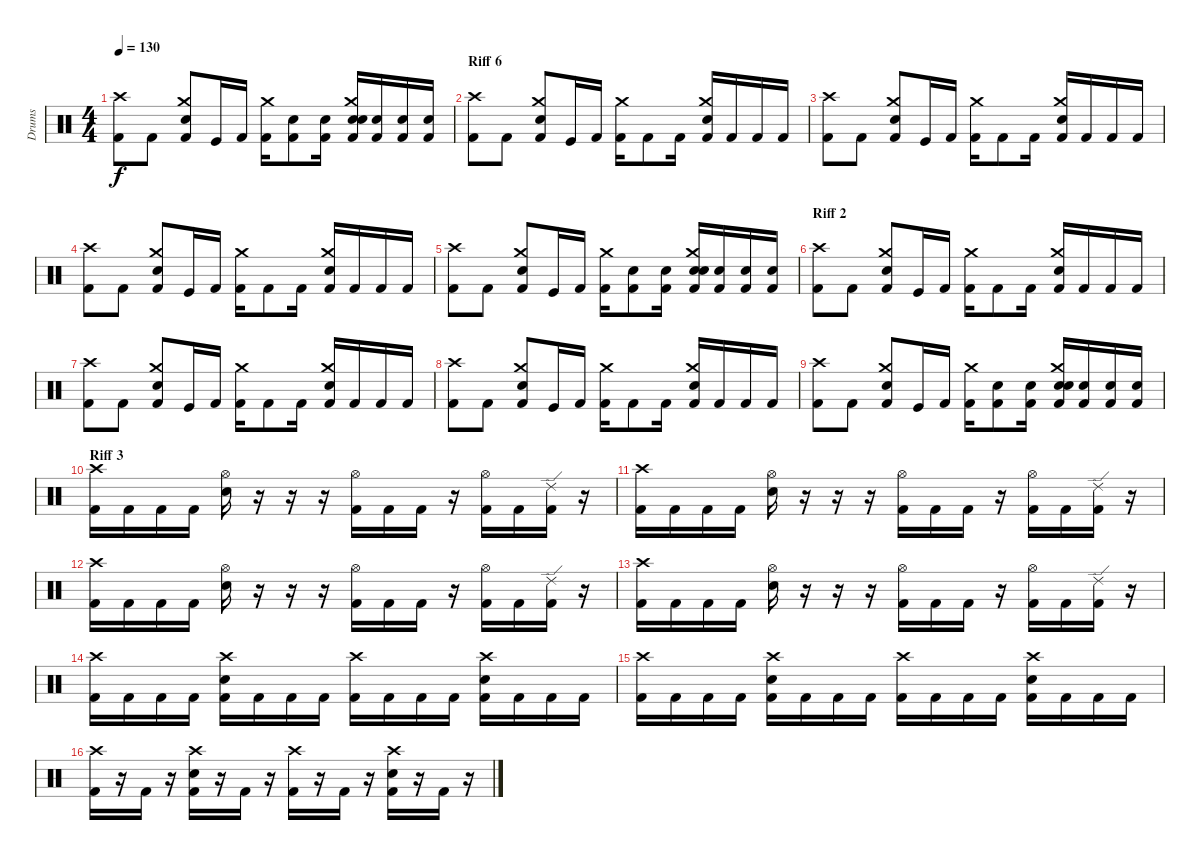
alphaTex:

\track ("Drums" "Drums") {instrument percussion}
\staff {score}
\articulation defaults
\ts (4 4)
\tempo 130
\clef neutral
\ks c
("Crash high (hit)" "Kick (hit) 2").8{dy f} "Kick (hit) 2".8 ("Crash medium (hit)" "Electric Snare (hit)" "Kick (hit) 2").8 "Kick (hit)".16 "Kick (hit) 2".16 ("Crash medium (hit)" "Kick (hit) 2").16 ("Electric Snare (hit)" "Kick (hit) 2").8 ("Electric Snare (hit)" "Kick (hit) 2").16 ("Crash medium (hit)" "Electric Snare (hit)" "Electric Snare (hit)" "Kick (hit) 2").16 ("Electric Snare (hit)" "Kick (hit) 2").16 ("Electric Snare (hit)" "Kick (hit) 2").16 ("Electric Snare (hit)" "Kick (hit) 2").16 |
\section ("" "Riff 6")
("Crash high (hit)" "Kick (hit) 2").8 "Kick (hit) 2".8 ("Crash medium (hit)" "Electric Snare (hit)" "Kick (hit) 2").8 "Kick (hit)".16 "Kick (hit) 2".16 ("Crash medium (hit)" "Kick (hit) 2").16 "Kick (hit) 2".8 "Kick (hit) 2".16 ("Crash medium (hit)" "Electric Snare (hit)" "Kick (hit) 2").16 "Kick (hit) 2".16 "Kick (hit) 2".16 "Kick (hit) 2".16 |
("Crash high (hit)" "Kick (hit) 2").8 "Kick (hit) 2".8 ("Crash medium (hit)" "Electric Snare (hit)" "Kick (hit) 2").8 "Kick (hit)".16 "Kick (hit) 2".16 ("Crash medium (hit)" "Kick (hit) 2").16 "Kick (hit) 2".8 "Kick (hit) 2".16 ("Crash medium (hit)" "Electric Snare (hit)" "Kick (hit) 2").16 "Kick (hit) 2".16 "Kick (hit) 2".16 "Kick (hit) 2".16 |
("Crash high (hit)" "Kick (hit) 2").8 "Kick (hit) 2".8 ("Crash medium (hit)" "Electric Snare (hit)" "Kick (hit) 2").8 "Kick (hit)".16 "Kick (hit) 2".16 ("Crash medium (hit)" "Kick (hit) 2").16 "Kick (hit) 2".8 "Kick (hit) 2".16 ("Crash medium (hit)" "Electric Snare (hit)" "Kick (hit) 2").16 "Kick (hit) 2".16 "Kick (hit) 2".16 "Kick (hit) 2".16 |
("Crash high (hit)" "Kick (hit) 2").8 "Kick (hit) 2".8 ("Crash medium (hit)" "Electric Snare (hit)" "Kick (hit) 2").8 "Kick (hit)".16 "Kick (hit) 2".16 ("Crash medium (hit)" "Kick (hit) 2").16 ("Electric Snare (hit)" "Kick (hit) 2").8 ("Electric Snare (hit)" "Kick (hit) 2").16 ("Crash medium (hit)" "Electric Snare (hit)" "Electric Snare (hit)" "Kick (hit) 2").16 ("Electric Snare (hit)" "Kick (hit) 2").16 ("Electric Snare (hit)" "Kick (hit) 2").16 ("Electric Snare (hit)" "Kick (hit) 2").16 |
\section ("" "Riff 2")
("Crash high (hit)" "Kick (hit) 2").8 "Kick (hit) 2".8 ("Crash medium (hit)" "Electric Snare (hit)" "Kick (hit) 2").8 "Kick (hit)".16 "Kick (hit) 2".16 ("Crash medium (hit)" "Kick (hit) 2").16 "Kick (hit) 2".8 "Kick (hit) 2".16 ("Crash medium (hit)" "Electric Snare (hit)" "Kick (hit) 2").16 "Kick (hit) 2".16 "Kick (hit) 2".16 "Kick (hit) 2".16 |
("Crash high (hit)" "Kick (hit) 2").8 "Kick (hit) 2".8 ("Crash medium (hit)" "Electric Snare (hit)" "Kick (hit) 2").8 "Kick (hit)".16 "Kick (hit) 2".16 ("Crash medium (hit)" "Kick (hit) 2").16 "Kick (hit) 2".8 "Kick (hit) 2".16 ("Crash medium (hit)" "Electric Snare (hit)" "Kick (hit) 2").16 "Kick (hit) 2".16 "Kick (hit) 2".16 "Kick (hit) 2".16 |
("Crash high (hit)" "Kick (hit) 2").8 "Kick (hit) 2".8 ("Crash medium (hit)" "Electric Snare (hit)" "Kick (hit) 2").8 "Kick (hit)".16 "Kick (hit) 2".16 ("Crash medium (hit)" "Kick (hit) 2").16 "Kick (hit) 2".8 "Kick (hit) 2".16 ("Crash medium (hit)" "Electric Snare (hit)" "Kick (hit) 2").16 "Kick (hit) 2".16 "Kick (hit) 2".16 "Kick (hit) 2".16 |
("Crash high (hit)" "Kick (hit) 2").8 "Kick (hit) 2".8 ("Crash medium (hit)" "Electric Snare (hit)" "Kick (hit) 2").8 "Kick (hit)".16 "Kick (hit) 2".16 ("Crash medium (hit)" "Kick (hit) 2").16 ("Electric Snare (hit)" "Kick (hit) 2").8 ("Electric Snare (hit)" "Kick (hit) 2").16 ("Crash medium (hit)" "Electric Snare (hit)" "Electric Snare (hit)" "Kick (hit) 2").16 ("Electric Snare (hit)" "Kick (hit) 2").16 ("Electric Snare (hit)" "Kick (hit) 2").16 ("Electric Snare (hit)" "Kick (hit) 2").16 |
\section ("" "Riff 3")
("Crash high (hit)" "Kick (hit) 2").16 "Kick (hit) 2".16 "Kick (hit) 2".16 "Kick (hit) 2".16 ("Hi-Hat (open)" "Electric Snare (hit)").16 r.16 r.16 r.16 ("Hi-Hat (open)" "Kick (hit) 2").16 "Kick (hit) 2".16 "Kick (hit) 2".16 r.16 ("Hi-Hat (open)" "Kick (hit) 2").16 "Kick (hit) 2".16 ("Ride (edge) 2" "Kick (hit) 2").16 r.16 |
("Crash high (hit)" "Kick (hit) 2").16 "Kick (hit) 2".16 "Kick (hit) 2".16 "Kick (hit) 2".16 ("Hi-Hat (open)" "Electric Snare (hit)").16 r.16 r.16 r.16 ("Hi-Hat (open)" "Kick (hit) 2").16 "Kick (hit) 2".16 "Kick (hit) 2".16 r.16 ("Hi-Hat (open)" "Kick (hit) 2").16 "Kick (hit) 2".16 ("Ride (edge) 2" "Kick (hit) 2").16 r.16 |
("Crash high (hit)" "Kick (hit) 2").16 "Kick (hit) 2".16 "Kick (hit) 2".16 "Kick (hit) 2".16 ("Hi-Hat (open)" "Electric Snare (hit)").16 r.16 r.16 r.16 ("Hi-Hat (open)" "Kick (hit) 2").16 "Kick (hit) 2".16 "Kick (hit) 2".16 r.16 ("Hi-Hat (open)" "Kick (hit) 2").16 "Kick (hit) 2".16 ("Ride (edge) 2" "Kick (hit) 2").16 r.16 |
("Crash high (hit)" "Kick (hit) 2").16 "Kick (hit) 2".16 "Kick (hit) 2".16 "Kick (hit) 2".16 ("Hi-Hat (open)" "Electric Snare (hit)").16 r.16 r.16 r.16 ("Hi-Hat (open)" "Kick (hit) 2").16 "Kick (hit) 2".16 "Kick (hit) 2".16 r.16 ("Hi-Hat (open)" "Kick (hit) 2").16 "Kick (hit) 2".16 ("Ride (edge) 2" "Kick (hit) 2").16 r.16 |
("Crash high (hit)" "Kick (hit) 2").16 "Kick (hit) 2".16 "Kick (hit) 2".16 "Kick (hit) 2".16 ("Crash high (hit)" "Electric Snare (hit)" "Kick (hit) 2").16 "Kick (hit) 2".16 "Kick (hit) 2".16 "Kick (hit) 2".16 ("Crash high (hit)" "Kick (hit) 2").16 "Kick (hit) 2".16 "Kick (hit) 2".16 "Kick (hit) 2".16 ("Crash high (hit)" "Electric Snare (hit)" "Kick (hit) 2").16 "Kick (hit) 2".16 "Kick (hit) 2".16 "Kick (hit) 2".16 |
("Crash high (hit)" "Kick (hit) 2").16 "Kick (hit) 2".16 "Kick (hit) 2".16 "Kick (hit) 2".16 ("Crash high (hit)" "Electric Snare (hit)" "Kick (hit) 2").16 "Kick (hit) 2".16 "Kick (hit) 2".16 "Kick (hit) 2".16 ("Crash high (hit)" "Kick (hit) 2").16 "Kick (hit) 2".16 "Kick (hit) 2".16 "Kick (hit) 2".16 ("Crash high (hit)" "Electric Snare (hit)" "Kick (hit) 2").16 "Kick (hit) 2".16 "Kick (hit) 2".16 "Kick (hit) 2".16 |
("Crash high (hit)" "Kick (hit) 2").16 r.16 "Kick (hit) 2".16 r.16 ("Crash high (hit)" "Electric Snare (hit)" "Kick (hit) 2").16 r.16 "Kick (hit) 2".16 r.16 ("Crash high (hit)" "Kick (hit) 2").16 r.16 "Kick (hit) 2".16 r.16 ("Crash high (hit)" "Electric Snare (hit)" "Kick (hit) 2").16 r.16 "Kick (hit) 2".16 r.16
